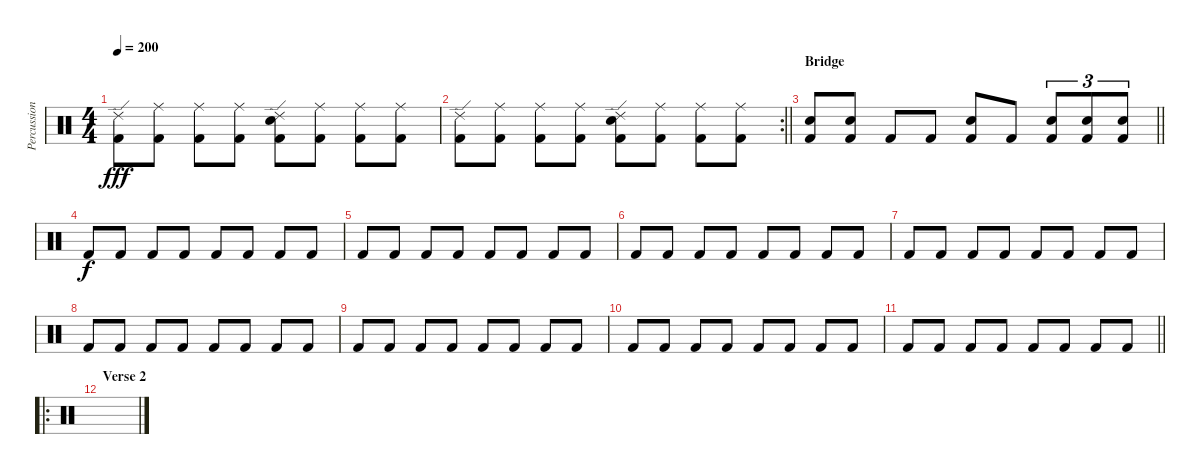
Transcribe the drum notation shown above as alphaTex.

\track ("Percussion" "Percussion") {instrument percussion}
\staff {score}
\articulation defaults
\ts (4 4)
\tempo 200
\clef neutral
\ks c
("Ride (edge) 2" "Kick (hit) 2").8{dy fff} ("Ride (middle)" "Kick (hit) 2").8 ("Ride (middle)" "Kick (hit) 2").8 ("Ride (middle)" "Kick (hit) 2").8 ("Ride (edge) 2" "Snare (hit) 2" "Kick (hit) 2").8 ("Ride (middle)" "Kick (hit) 2").8 ("Ride (middle)" "Kick (hit) 2").8 ("Ride (middle)" "Kick (hit) 2").8 |
\rc 2
\barLineRight lightlight
("Ride (edge) 2" "Kick (hit) 2").8 ("Ride (middle)" "Kick (hit) 2").8 ("Ride (middle)" "Kick (hit) 2").8 ("Ride (middle)" "Kick (hit) 2").8 ("Ride (edge) 2" "Snare (hit) 2" "Kick (hit) 2").8 ("Ride (middle)" "Kick (hit) 2").8 ("Ride (middle)" "Kick (hit) 2").8 ("Ride (middle)" "Kick (hit) 2").8 |
\section ("" "Bridge")
\barLineRight lightlight
("Snare (hit) 2" "Kick (hit) 2").8 ("Snare (hit) 2" "Kick (hit) 2").8 "Kick (hit) 2".8 "Kick (hit) 2".8 ("Snare (hit) 2" "Kick (hit) 2").8 "Kick (hit) 2".8 ("Snare (hit) 2" "Kick (hit) 2").8{tu (3 2)} ("Snare (hit) 2" "Kick (hit) 2").8{tu (3 2)} ("Snare (hit) 2" "Kick (hit) 2").8{tu (3 2)} |
"Kick (hit) 2".8{dy f} "Kick (hit) 2".8 "Kick (hit) 2".8 "Kick (hit) 2".8 "Kick (hit) 2".8 "Kick (hit) 2".8 "Kick (hit) 2".8 "Kick (hit) 2".8 |
"Kick (hit) 2".8 "Kick (hit) 2".8 "Kick (hit) 2".8 "Kick (hit) 2".8 "Kick (hit) 2".8 "Kick (hit) 2".8 "Kick (hit) 2".8 "Kick (hit) 2".8 |
"Kick (hit) 2".8 "Kick (hit) 2".8 "Kick (hit) 2".8 "Kick (hit) 2".8 "Kick (hit) 2".8 "Kick (hit) 2".8 "Kick (hit) 2".8 "Kick (hit) 2".8 |
"Kick (hit) 2".8 "Kick (hit) 2".8 "Kick (hit) 2".8 "Kick (hit) 2".8 "Kick (hit) 2".8 "Kick (hit) 2".8 "Kick (hit) 2".8 "Kick (hit) 2".8 |
"Kick (hit) 2".8 "Kick (hit) 2".8 "Kick (hit) 2".8 "Kick (hit) 2".8 "Kick (hit) 2".8 "Kick (hit) 2".8 "Kick (hit) 2".8 "Kick (hit) 2".8 |
"Kick (hit) 2".8 "Kick (hit) 2".8 "Kick (hit) 2".8 "Kick (hit) 2".8 "Kick (hit) 2".8 "Kick (hit) 2".8 "Kick (hit) 2".8 "Kick (hit) 2".8 |
"Kick (hit) 2".8 "Kick (hit) 2".8 "Kick (hit) 2".8 "Kick (hit) 2".8 "Kick (hit) 2".8 "Kick (hit) 2".8 "Kick (hit) 2".8 "Kick (hit) 2".8 |
\barLineRight lightlight "Kick (hit) 2".8 "Kick (hit) 2".8 "Kick (hit) 2".8 "Kick (hit) 2".8 "Kick (hit) 2".8 "Kick (hit) 2".8 "Kick (hit) 2".8 "Kick (hit) 2".8
|
\ro
\section ("" "Verse 2")
